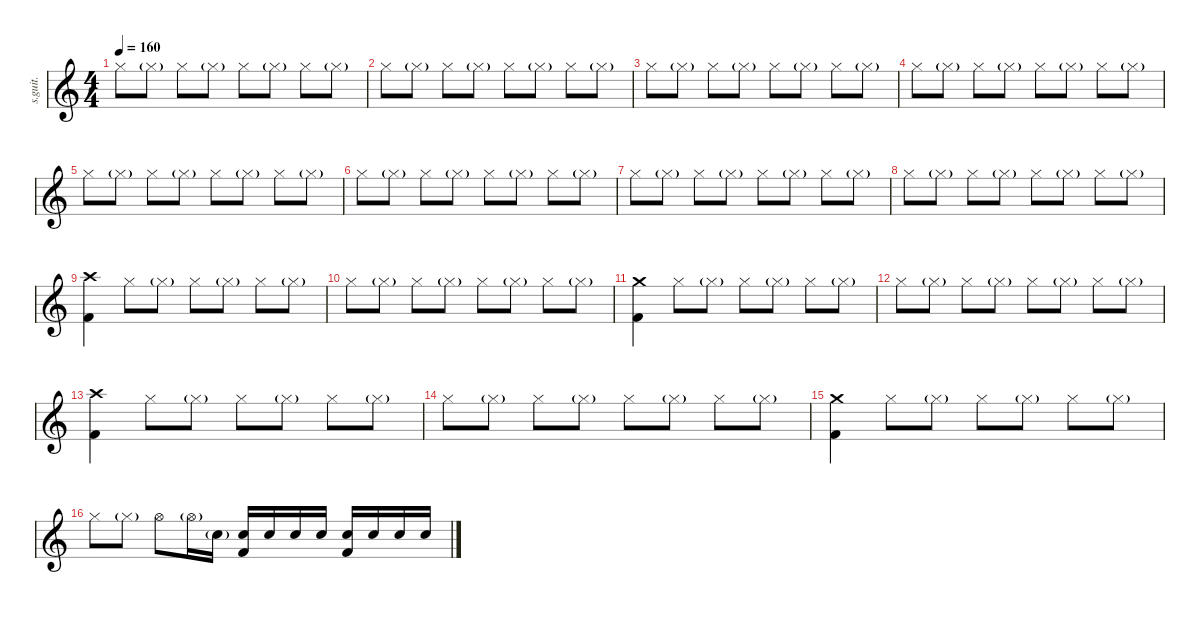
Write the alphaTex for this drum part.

\defaultSystemsLayout 4
\hideDynamics
\bracketExtendMode nobrackets
\track ("Drumkit" "s.guit.") {instrument percussion}
\staff {score}
\articulation defaults
\ts (4 4)
\beaming (8 2 2 2 2)
\tempo 160
\clef g2
\ks c "Hi-Hat (closed)".8{lyrics (0 "") lyrics (1 "") lyrics (2 "") lyrics (3 "") lyrics (4 "") dy mf} "Hi-Hat (closed)"{g}.8{lyrics (0 "") lyrics (1 "") lyrics (2 "") lyrics (3 "") lyrics (4 "")} "Hi-Hat (closed)".8{lyrics (0 "") lyrics (1 "") lyrics (2 "") lyrics (3 "") lyrics (4 "")} "Hi-Hat (closed)"{g}.8{lyrics (0 "") lyrics (1 "") lyrics (2 "") lyrics (3 "") lyrics (4 "")} "Hi-Hat (closed)".8{lyrics (0 "") lyrics (1 "") lyrics (2 "") lyrics (3 "") lyrics (4 "")} "Hi-Hat (closed)"{g}.8{lyrics (0 "") lyrics (1 "") lyrics (2 "") lyrics (3 "") lyrics (4 "")} "Hi-Hat (closed)".8{lyrics (0 "") lyrics (1 "") lyrics (2 "") lyrics (3 "") lyrics (4 "")} "Hi-Hat (closed)"{g}.8{lyrics (0 "") lyrics (1 "") lyrics (2 "") lyrics (3 "") lyrics (4 "")}
|
"Hi-Hat (closed)".8{lyrics (0 "") lyrics (1 "") lyrics (2 "") lyrics (3 "") lyrics (4 "")} "Hi-Hat (closed)"{g}.8{lyrics (0 "") lyrics (1 "") lyrics (2 "") lyrics (3 "") lyrics (4 "")} "Hi-Hat (closed)".8{lyrics (0 "") lyrics (1 "") lyrics (2 "") lyrics (3 "") lyrics (4 "")} "Hi-Hat (closed)"{g}.8{lyrics (0 "") lyrics (1 "") lyrics (2 "") lyrics (3 "") lyrics (4 "")} "Hi-Hat (closed)".8{lyrics (0 "") lyrics (1 "") lyrics (2 "") lyrics (3 "") lyrics (4 "")} "Hi-Hat (closed)"{g}.8{lyrics (0 "") lyrics (1 "") lyrics (2 "") lyrics (3 "") lyrics (4 "")} "Hi-Hat (closed)".8{lyrics (0 "") lyrics (1 "") lyrics (2 "") lyrics (3 "") lyrics (4 "")} "Hi-Hat (closed)"{g}.8{lyrics (0 "") lyrics (1 "") lyrics (2 "") lyrics (3 "") lyrics (4 "")} |
"Hi-Hat (closed)".8{lyrics (0 "") lyrics (1 "") lyrics (2 "") lyrics (3 "") lyrics (4 "")} "Hi-Hat (closed)"{g}.8{lyrics (0 "") lyrics (1 "") lyrics (2 "") lyrics (3 "") lyrics (4 "")} "Hi-Hat (closed)".8{lyrics (0 "") lyrics (1 "") lyrics (2 "") lyrics (3 "") lyrics (4 "")} "Hi-Hat (closed)"{g}.8{lyrics (0 "") lyrics (1 "") lyrics (2 "") lyrics (3 "") lyrics (4 "")} "Hi-Hat (closed)".8{lyrics (0 "") lyrics (1 "") lyrics (2 "") lyrics (3 "") lyrics (4 "")} "Hi-Hat (closed)"{g}.8{lyrics (0 "") lyrics (1 "") lyrics (2 "") lyrics (3 "") lyrics (4 "")} "Hi-Hat (closed)".8{lyrics (0 "") lyrics (1 "") lyrics (2 "") lyrics (3 "") lyrics (4 "")} "Hi-Hat (closed)"{g}.8{lyrics (0 "") lyrics (1 "") lyrics (2 "") lyrics (3 "") lyrics (4 "")} |
"Hi-Hat (closed)".8{lyrics (0 "") lyrics (1 "") lyrics (2 "") lyrics (3 "") lyrics (4 "")} "Hi-Hat (closed)"{g}.8{lyrics (0 "") lyrics (1 "") lyrics (2 "") lyrics (3 "") lyrics (4 "")} "Hi-Hat (closed)".8{lyrics (0 "") lyrics (1 "") lyrics (2 "") lyrics (3 "") lyrics (4 "")} "Hi-Hat (closed)"{g}.8{lyrics (0 "") lyrics (1 "") lyrics (2 "") lyrics (3 "") lyrics (4 "")} "Hi-Hat (closed)".8{lyrics (0 "") lyrics (1 "") lyrics (2 "") lyrics (3 "") lyrics (4 "")} "Hi-Hat (closed)"{g}.8{lyrics (0 "") lyrics (1 "") lyrics (2 "") lyrics (3 "") lyrics (4 "")} "Hi-Hat (closed)".8{lyrics (0 "") lyrics (1 "") lyrics (2 "") lyrics (3 "") lyrics (4 "")} "Hi-Hat (closed)"{g}.8{lyrics (0 "") lyrics (1 "") lyrics (2 "") lyrics (3 "") lyrics (4 "")} |
"Hi-Hat (closed)".8{lyrics (0 "") lyrics (1 "") lyrics (2 "") lyrics (3 "") lyrics (4 "")} "Hi-Hat (closed)"{g}.8{lyrics (0 "") lyrics (1 "") lyrics (2 "") lyrics (3 "") lyrics (4 "")} "Hi-Hat (closed)".8{lyrics (0 "") lyrics (1 "") lyrics (2 "") lyrics (3 "") lyrics (4 "")} "Hi-Hat (closed)"{g}.8{lyrics (0 "") lyrics (1 "") lyrics (2 "") lyrics (3 "") lyrics (4 "")} "Hi-Hat (closed)".8{lyrics (0 "") lyrics (1 "") lyrics (2 "") lyrics (3 "") lyrics (4 "")} "Hi-Hat (closed)"{g}.8{lyrics (0 "") lyrics (1 "") lyrics (2 "") lyrics (3 "") lyrics (4 "")} "Hi-Hat (closed)".8{lyrics (0 "") lyrics (1 "") lyrics (2 "") lyrics (3 "") lyrics (4 "")} "Hi-Hat (closed)"{g}.8{lyrics (0 "") lyrics (1 "") lyrics (2 "") lyrics (3 "") lyrics (4 "")} |
"Hi-Hat (closed)".8{lyrics (0 "") lyrics (1 "") lyrics (2 "") lyrics (3 "") lyrics (4 "")} "Hi-Hat (closed)"{g}.8{lyrics (0 "") lyrics (1 "") lyrics (2 "") lyrics (3 "") lyrics (4 "")} "Hi-Hat (closed)".8{lyrics (0 "") lyrics (1 "") lyrics (2 "") lyrics (3 "") lyrics (4 "")} "Hi-Hat (closed)"{g}.8{lyrics (0 "") lyrics (1 "") lyrics (2 "") lyrics (3 "") lyrics (4 "")} "Hi-Hat (closed)".8{lyrics (0 "") lyrics (1 "") lyrics (2 "") lyrics (3 "") lyrics (4 "")} "Hi-Hat (closed)"{g}.8{lyrics (0 "") lyrics (1 "") lyrics (2 "") lyrics (3 "") lyrics (4 "")} "Hi-Hat (closed)".8{lyrics (0 "") lyrics (1 "") lyrics (2 "") lyrics (3 "") lyrics (4 "")} "Hi-Hat (closed)"{g}.8{lyrics (0 "") lyrics (1 "") lyrics (2 "") lyrics (3 "") lyrics (4 "")} |
"Hi-Hat (closed)".8{lyrics (0 "") lyrics (1 "") lyrics (2 "") lyrics (3 "") lyrics (4 "")} "Hi-Hat (closed)"{g}.8{lyrics (0 "") lyrics (1 "") lyrics (2 "") lyrics (3 "") lyrics (4 "")} "Hi-Hat (closed)".8{lyrics (0 "") lyrics (1 "") lyrics (2 "") lyrics (3 "") lyrics (4 "")} "Hi-Hat (closed)"{g}.8{lyrics (0 "") lyrics (1 "") lyrics (2 "") lyrics (3 "") lyrics (4 "")} "Hi-Hat (closed)".8{lyrics (0 "") lyrics (1 "") lyrics (2 "") lyrics (3 "") lyrics (4 "")} "Hi-Hat (closed)"{g}.8{lyrics (0 "") lyrics (1 "") lyrics (2 "") lyrics (3 "") lyrics (4 "")} "Hi-Hat (closed)".8{lyrics (0 "") lyrics (1 "") lyrics (2 "") lyrics (3 "") lyrics (4 "")} "Hi-Hat (closed)"{g}.8{lyrics (0 "") lyrics (1 "") lyrics (2 "") lyrics (3 "") lyrics (4 "")} |
"Hi-Hat (closed)".8{lyrics (0 "") lyrics (1 "") lyrics (2 "") lyrics (3 "") lyrics (4 "")} "Hi-Hat (closed)"{g}.8{lyrics (0 "") lyrics (1 "") lyrics (2 "") lyrics (3 "") lyrics (4 "")} "Hi-Hat (closed)".8{lyrics (0 "") lyrics (1 "") lyrics (2 "") lyrics (3 "") lyrics (4 "")} "Hi-Hat (closed)"{g}.8{lyrics (0 "") lyrics (1 "") lyrics (2 "") lyrics (3 "") lyrics (4 "")} "Hi-Hat (closed)".8{lyrics (0 "") lyrics (1 "") lyrics (2 "") lyrics (3 "") lyrics (4 "")} "Hi-Hat (closed)"{g}.8{lyrics (0 "") lyrics (1 "") lyrics (2 "") lyrics (3 "") lyrics (4 "")} "Hi-Hat (closed)".8{lyrics (0 "") lyrics (1 "") lyrics (2 "") lyrics (3 "") lyrics (4 "")} "Hi-Hat (closed)"{g}.8{lyrics (0 "") lyrics (1 "") lyrics (2 "") lyrics (3 "") lyrics (4 "")} |
("Crash high (hit)" "Kick (hit) 2").4{lyrics (0 "") lyrics (1 "") lyrics (2 "") lyrics (3 "") lyrics (4 "")} "Hi-Hat (closed)".8{lyrics (0 "") lyrics (1 "") lyrics (2 "") lyrics (3 "") lyrics (4 "")} "Hi-Hat (closed)"{g}.8{lyrics (0 "") lyrics (1 "") lyrics (2 "") lyrics (3 "") lyrics (4 "")} "Hi-Hat (closed)".8{lyrics (0 "") lyrics (1 "") lyrics (2 "") lyrics (3 "") lyrics (4 "")} "Hi-Hat (closed)"{g}.8{lyrics (0 "") lyrics (1 "") lyrics (2 "") lyrics (3 "") lyrics (4 "")} "Hi-Hat (closed)".8{lyrics (0 "") lyrics (1 "") lyrics (2 "") lyrics (3 "") lyrics (4 "")} "Hi-Hat (closed)"{g}.8{lyrics (0 "") lyrics (1 "") lyrics (2 "") lyrics (3 "") lyrics (4 "")} |
"Hi-Hat (closed)".8{lyrics (0 "") lyrics (1 "") lyrics (2 "") lyrics (3 "") lyrics (4 "")} "Hi-Hat (closed)"{g}.8{lyrics (0 "") lyrics (1 "") lyrics (2 "") lyrics (3 "") lyrics (4 "")} "Hi-Hat (closed)".8{lyrics (0 "") lyrics (1 "") lyrics (2 "") lyrics (3 "") lyrics (4 "")} "Hi-Hat (closed)"{g}.8{lyrics (0 "") lyrics (1 "") lyrics (2 "") lyrics (3 "") lyrics (4 "")} "Hi-Hat (closed)".8{lyrics (0 "") lyrics (1 "") lyrics (2 "") lyrics (3 "") lyrics (4 "")} "Hi-Hat (closed)"{g}.8{lyrics (0 "") lyrics (1 "") lyrics (2 "") lyrics (3 "") lyrics (4 "")} "Hi-Hat (closed)".8{lyrics (0 "") lyrics (1 "") lyrics (2 "") lyrics (3 "") lyrics (4 "")} "Hi-Hat (closed)"{g}.8{lyrics (0 "") lyrics (1 "") lyrics (2 "") lyrics (3 "") lyrics (4 "")} |
("Crash medium (hit)" "Kick (hit) 2").4{lyrics (0 "") lyrics (1 "") lyrics (2 "") lyrics (3 "") lyrics (4 "")} "Hi-Hat (closed)".8{lyrics (0 "") lyrics (1 "") lyrics (2 "") lyrics (3 "") lyrics (4 "")} "Hi-Hat (closed)"{g}.8{lyrics (0 "") lyrics (1 "") lyrics (2 "") lyrics (3 "") lyrics (4 "")} "Hi-Hat (closed)".8{lyrics (0 "") lyrics (1 "") lyrics (2 "") lyrics (3 "") lyrics (4 "")} "Hi-Hat (closed)"{g}.8{lyrics (0 "") lyrics (1 "") lyrics (2 "") lyrics (3 "") lyrics (4 "")} "Hi-Hat (closed)".8{lyrics (0 "") lyrics (1 "") lyrics (2 "") lyrics (3 "") lyrics (4 "")} "Hi-Hat (closed)"{g}.8{lyrics (0 "") lyrics (1 "") lyrics (2 "") lyrics (3 "") lyrics (4 "")} |
"Hi-Hat (closed)".8{lyrics (0 "") lyrics (1 "") lyrics (2 "") lyrics (3 "") lyrics (4 "")} "Hi-Hat (closed)"{g}.8{lyrics (0 "") lyrics (1 "") lyrics (2 "") lyrics (3 "") lyrics (4 "")} "Hi-Hat (closed)".8{lyrics (0 "") lyrics (1 "") lyrics (2 "") lyrics (3 "") lyrics (4 "")} "Hi-Hat (closed)"{g}.8{lyrics (0 "") lyrics (1 "") lyrics (2 "") lyrics (3 "") lyrics (4 "")} "Hi-Hat (closed)".8{lyrics (0 "") lyrics (1 "") lyrics (2 "") lyrics (3 "") lyrics (4 "")} "Hi-Hat (closed)"{g}.8{lyrics (0 "") lyrics (1 "") lyrics (2 "") lyrics (3 "") lyrics (4 "")} "Hi-Hat (closed)".8{lyrics (0 "") lyrics (1 "") lyrics (2 "") lyrics (3 "") lyrics (4 "")} "Hi-Hat (closed)"{g}.8{lyrics (0 "") lyrics (1 "") lyrics (2 "") lyrics (3 "") lyrics (4 "")} |
("Crash high (hit)" "Kick (hit) 2").4{lyrics (0 "") lyrics (1 "") lyrics (2 "") lyrics (3 "") lyrics (4 "")} "Hi-Hat (closed)".8{lyrics (0 "") lyrics (1 "") lyrics (2 "") lyrics (3 "") lyrics (4 "")} "Hi-Hat (closed)"{g}.8{lyrics (0 "") lyrics (1 "") lyrics (2 "") lyrics (3 "") lyrics (4 "")} "Hi-Hat (closed)".8{lyrics (0 "") lyrics (1 "") lyrics (2 "") lyrics (3 "") lyrics (4 "")} "Hi-Hat (closed)"{g}.8{lyrics (0 "") lyrics (1 "") lyrics (2 "") lyrics (3 "") lyrics (4 "")} "Hi-Hat (closed)".8{lyrics (0 "") lyrics (1 "") lyrics (2 "") lyrics (3 "") lyrics (4 "")} "Hi-Hat (closed)"{g}.8{lyrics (0 "") lyrics (1 "") lyrics (2 "") lyrics (3 "") lyrics (4 "")} |
"Hi-Hat (closed)".8{lyrics (0 "") lyrics (1 "") lyrics (2 "") lyrics (3 "") lyrics (4 "")} "Hi-Hat (closed)"{g}.8{lyrics (0 "") lyrics (1 "") lyrics (2 "") lyrics (3 "") lyrics (4 "")} "Hi-Hat (closed)".8{lyrics (0 "") lyrics (1 "") lyrics (2 "") lyrics (3 "") lyrics (4 "")} "Hi-Hat (closed)"{g}.8{lyrics (0 "") lyrics (1 "") lyrics (2 "") lyrics (3 "") lyrics (4 "")} "Hi-Hat (closed)".8{lyrics (0 "") lyrics (1 "") lyrics (2 "") lyrics (3 "") lyrics (4 "")} "Hi-Hat (closed)"{g}.8{lyrics (0 "") lyrics (1 "") lyrics (2 "") lyrics (3 "") lyrics (4 "")} "Hi-Hat (closed)".8{lyrics (0 "") lyrics (1 "") lyrics (2 "") lyrics (3 "") lyrics (4 "")} "Hi-Hat (closed)"{g}.8{lyrics (0 "") lyrics (1 "") lyrics (2 "") lyrics (3 "") lyrics (4 "")} |
("Crash medium (hit)" "Kick (hit) 2").4{lyrics (0 "") lyrics (1 "") lyrics (2 "") lyrics (3 "") lyrics (4 "")} "Hi-Hat (closed)".8{lyrics (0 "") lyrics (1 "") lyrics (2 "") lyrics (3 "") lyrics (4 "")} "Hi-Hat (closed)"{g}.8{lyrics (0 "") lyrics (1 "") lyrics (2 "") lyrics (3 "") lyrics (4 "")} "Hi-Hat (closed)".8{lyrics (0 "") lyrics (1 "") lyrics (2 "") lyrics (3 "") lyrics (4 "")} "Hi-Hat (closed)"{g}.8{lyrics (0 "") lyrics (1 "") lyrics (2 "") lyrics (3 "") lyrics (4 "")} "Hi-Hat (closed)".8{lyrics (0 "") lyrics (1 "") lyrics (2 "") lyrics (3 "") lyrics (4 "")} "Hi-Hat (closed)"{g}.8{lyrics (0 "") lyrics (1 "") lyrics (2 "") lyrics (3 "") lyrics (4 "")} |
"Hi-Hat (closed)".8{lyrics (0 "") lyrics (1 "") lyrics (2 "") lyrics (3 "") lyrics (4 "")} "Hi-Hat (closed)"{g}.8{lyrics (0 "") lyrics (1 "") lyrics (2 "") lyrics (3 "") lyrics (4 "")} "Hi-Hat (open)".8{lyrics (0 "") lyrics (1 "") lyrics (2 "") lyrics (3 "") lyrics (4 "") dy ff} "Hi-Hat (open)"{g}.16{lyrics (0 "") lyrics (1 "") lyrics (2 "") lyrics (3 "") lyrics (4 "")} "Snare (hit) 2"{g}.16{lyrics (0 "") lyrics (1 "") lyrics (2 "") lyrics (3 "") lyrics (4 "")} ("Snare (hit) 2" "Kick (hit) 2").16{lyrics (0 "") lyrics (1 "") lyrics (2 "") lyrics (3 "") lyrics (4 "")} "Snare (hit) 2".16{lyrics (0 "") lyrics (1 "") lyrics (2 "") lyrics (3 "") lyrics (4 "")} "Snare (hit) 2".16{lyrics (0 "") lyrics (1 "") lyrics (2 "") lyrics (3 "") lyrics (4 "")} "Snare (hit) 2".16{lyrics (0 "") lyrics (1 "") lyrics (2 "") lyrics (3 "") lyrics (4 "")} ("Snare (hit) 2" "Kick (hit) 2").16{lyrics (0 "") lyrics (1 "") lyrics (2 "") lyrics (3 "") lyrics (4 "")} "Snare (hit) 2".16{lyrics (0 "") lyrics (1 "") lyrics (2 "") lyrics (3 "") lyrics (4 "")} "Snare (hit) 2".16{lyrics (0 "") lyrics (1 "") lyrics (2 "") lyrics (3 "") lyrics (4 "")} "Snare (hit) 2".16{lyrics (0 "") lyrics (1 "") lyrics (2 "") lyrics (3 "") lyrics (4 "")}
